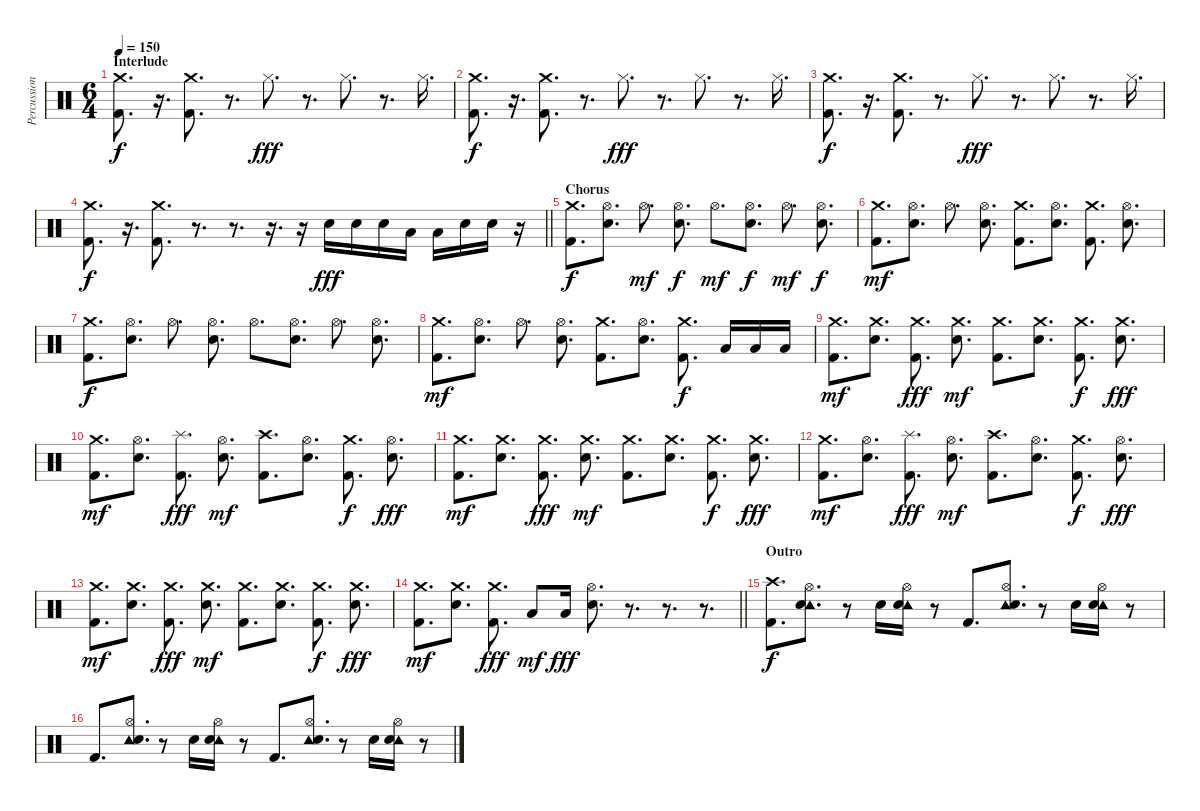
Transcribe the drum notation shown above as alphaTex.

\track ("Percussion" "Percussion") {solo instrument percussion}
\staff {score}
\articulation defaults
\ts (6 4)
\section ("" "Interlude")
\tempo 150
\clef neutral
\ks c
("Crash medium (hit)" "Kick (hit) 2").8{d dy f} r.16{d} ("Crash medium (hit)" "Kick (hit) 2").8{d} r.8{d} "Hi-Hat (closed)".8{d dy fff} r.8{d} "Hi-Hat (closed)".8{d} r.8{d} "Hi-Hat (closed)".16{d} |
("Crash medium (hit)" "Kick (hit) 2").8{d dy f} r.16{d} ("Crash medium (hit)" "Kick (hit) 2").8{d} r.8{d} "Hi-Hat (closed)".8{d dy fff} r.8{d} "Hi-Hat (closed)".8{d} r.8{d} "Hi-Hat (closed)".16{d} |
("Crash medium (hit)" "Kick (hit) 2").8{d dy f} r.16{d} ("Crash medium (hit)" "Kick (hit) 2").8{d} r.8{d} "Hi-Hat (closed)".8{d dy fff} r.8{d} "Hi-Hat (closed)".8{d} r.8{d} "Hi-Hat (closed)".16{d} |
\barLineRight lightlight
("Crash medium (hit)" "Kick (hit) 2").8{d dy f} r.16{d} ("Crash medium (hit)" "Kick (hit) 2").8{d} r.8{d} r.8{d} r.16{d} r.16 "Electric Snare (hit)".16{dy fff} "Electric Snare (hit)".16 "Electric Snare (hit)".16 "Low Tom (hit)".16 "Low Tom (hit)".16 "Electric Snare (hit)".16 "Electric Snare (hit)".16 r.16 |
\section ("" "Chorus")
("Crash medium (hit)" "Kick (hit) 2").8{d dy f} ("Hi-Hat (open)" "Electric Snare (hit)").8{d} "Hi-Hat (open)".8{d dy mf} ("Hi-Hat (open)" "Electric Snare (hit)").8{d dy f} "Hi-Hat (open)".8{d dy mf} ("Hi-Hat (open)" "Electric Snare (hit)").8{d dy f} "Hi-Hat (open)".8{d dy mf} ("Hi-Hat (open)" "Electric Snare (hit)").8{d dy f} |
("Crash medium (hit)" "Kick (hit) 2").8{d dy mf} ("Hi-Hat (open)" "Electric Snare (hit)").8{d} "Hi-Hat (open)".8{d} ("Hi-Hat (open)" "Electric Snare (hit)").8{d} ("Crash medium (hit)" "Kick (hit) 2").8{d} ("Hi-Hat (open)" "Electric Snare (hit)").8{d} ("Crash medium (hit)" "Kick (hit) 2").8{d} ("Hi-Hat (open)" "Electric Snare (hit)").8{d} |
("Crash medium (hit)" "Kick (hit) 2").8{d dy f} ("Hi-Hat (open)" "Electric Snare (hit)").8{d} "Hi-Hat (open)".8{d} ("Hi-Hat (open)" "Electric Snare (hit)").8{d} "Hi-Hat (open)".8{d} ("Hi-Hat (open)" "Electric Snare (hit)").8{d} "Hi-Hat (open)".8{d} ("Hi-Hat (open)" "Electric Snare (hit)").8{d} |
("Crash medium (hit)" "Kick (hit) 2").8{d dy mf} ("Hi-Hat (open)" "Electric Snare (hit)").8{d} "Hi-Hat (open)".8{d} ("Hi-Hat (open)" "Electric Snare (hit)").8{d} ("Crash medium (hit)" "Kick (hit) 2").8{d} ("Hi-Hat (open)" "Electric Snare (hit)").8{d} ("Crash medium (hit)" "Kick (hit) 2").8{d dy f} "Low Tom (hit)".16 "Low Tom (hit)".16 "Low Floor Tom (hit)".16 |
("Crash medium (hit)" "Kick (hit) 2").8{d dy mf} ("Crash medium (hit)" "Electric Snare (hit)").8{d} ("Crash medium (hit)" "Kick (hit) 2").8{d dy fff} ("Crash medium (hit)" "Electric Snare (hit)").8{d dy mf} ("Crash medium (hit)" "Kick (hit) 2").8{d} ("Crash medium (hit)" "Electric Snare (hit)").8{d} ("Crash medium (hit)" "Kick (hit) 2").8{d dy f} ("Crash medium (hit)" "Electric Snare (hit)").8{d dy fff} |
("Crash medium (hit)" "Kick (hit) 2").8{d dy mf} ("Hi-Hat (open)" "Electric Snare (hit)").8{d} ("Splash (hit)" "Kick (hit) 2").8{d dy fff} ("Hi-Hat (open)" "Electric Snare (hit)").8{d dy mf} ("Crash high (hit)" "Kick (hit) 2").8{d} ("Hi-Hat (open)" "Electric Snare (hit)").8{d} ("Crash medium (hit)" "Kick (hit) 2").8{d dy f} ("Hi-Hat (open)" "Electric Snare (hit)").8{d dy fff} |
("Crash medium (hit)" "Kick (hit) 2").8{d dy mf} ("Crash medium (hit)" "Electric Snare (hit)").8{d} ("Crash medium (hit)" "Kick (hit) 2").8{d dy fff} ("Crash medium (hit)" "Electric Snare (hit)").8{d dy mf} ("Crash medium (hit)" "Kick (hit) 2").8{d} ("Crash medium (hit)" "Electric Snare (hit)").8{d} ("Crash medium (hit)" "Kick (hit) 2").8{d dy f} ("Crash medium (hit)" "Electric Snare (hit)").8{d dy fff} |
("Crash medium (hit)" "Kick (hit) 2").8{d dy mf} ("Hi-Hat (open)" "Electric Snare (hit)").8{d} ("Splash (hit)" "Kick (hit) 2").8{d dy fff} ("Hi-Hat (open)" "Electric Snare (hit)").8{d dy mf} ("Crash high (hit)" "Kick (hit) 2").8{d} ("Hi-Hat (open)" "Electric Snare (hit)").8{d} ("Crash medium (hit)" "Kick (hit) 2").8{d dy f} ("Hi-Hat (open)" "Electric Snare (hit)").8{d dy fff} |
("Crash medium (hit)" "Kick (hit) 2").8{d dy mf} ("Crash medium (hit)" "Electric Snare (hit)").8{d} ("Crash medium (hit)" "Kick (hit) 2").8{d dy fff} ("Crash medium (hit)" "Electric Snare (hit)").8{d dy mf} ("Crash medium (hit)" "Kick (hit) 2").8{d} ("Crash medium (hit)" "Electric Snare (hit)").8{d} ("Crash medium (hit)" "Kick (hit) 2").8{d dy f} ("Crash medium (hit)" "Electric Snare (hit)").8{d dy fff} |
\barLineRight lightlight
("Crash medium (hit)" "Kick (hit) 2").8{d dy mf} ("Crash medium (hit)" "Electric Snare (hit)").8{d} ("Crash medium (hit)" "Kick (hit) 2").8{d dy fff} "Low Tom (hit)".8{dy mf} "Low Tom (hit)".16{dy fff} ("Hi-Hat (open)" "Electric Snare (hit)").8{d} r.8{d} r.8{d} r.8{d} |
\section ("" "Outro")
("Crash high (hit)" "Kick (hit) 2").8{d dy f} ("Tambourine (hit)" "Hi-Hat (open)" "Electric Snare (hit)").8{d} r.8 "Electric Snare (hit)".16 ("Tambourine (hit)" "Hi-Hat (open)" "Electric Snare (hit)").16 r.8 "Kick (hit) 2".8{d} ("Tambourine (hit)" "Hi-Hat (open)" "Electric Snare (hit)").8{d} r.8 "Electric Snare (hit)".16 ("Tambourine (hit)" "Hi-Hat (open)" "Electric Snare (hit)").16 r.8 |
"Kick (hit) 2".8{d} ("Tambourine (hit)" "Hi-Hat (open)" "Electric Snare (hit)").8{d} r.8 "Electric Snare (hit)".16 ("Tambourine (hit)" "Hi-Hat (open)" "Electric Snare (hit)").16 r.8 "Kick (hit) 2".8{d} ("Tambourine (hit)" "Hi-Hat (open)" "Electric Snare (hit)").8{d} r.8 "Electric Snare (hit)".16 ("Tambourine (hit)" "Hi-Hat (open)" "Electric Snare (hit)").16 r.8
